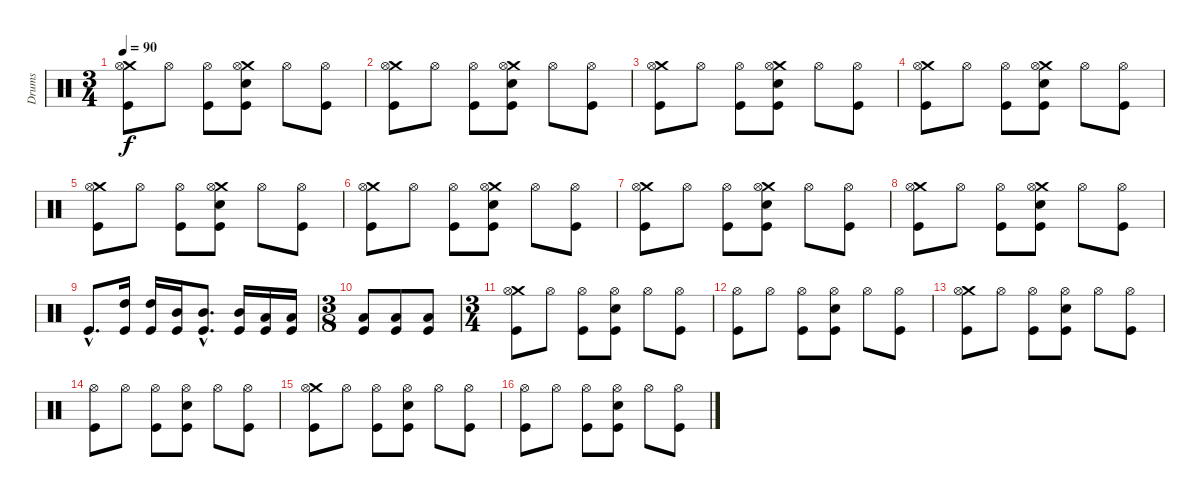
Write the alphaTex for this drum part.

\track ("Drums" "Drums") {instrument percussion}
\staff {score}
\articulation defaults
\ts (3 4)
\tempo 90
\clef neutral
\ks c
("Crash medium (hit)" "Hi-Hat (open)" "Kick (hit)").8{dy f} "Hi-Hat (open)".8 ("Hi-Hat (open)" "Kick (hit)").8 ("Crash medium (hit)" "Hi-Hat (open)" "Snare (hit) 2" "Kick (hit)").8 "Hi-Hat (open)".8 ("Hi-Hat (open)" "Kick (hit)").8 |
("Crash medium (hit)" "Hi-Hat (open)" "Kick (hit)").8 "Hi-Hat (open)".8 ("Hi-Hat (open)" "Kick (hit)").8 ("Crash medium (hit)" "Hi-Hat (open)" "Snare (hit) 2" "Kick (hit)").8 "Hi-Hat (open)".8 ("Hi-Hat (open)" "Kick (hit)").8 |
("Crash medium (hit)" "Hi-Hat (open)" "Kick (hit)").8 "Hi-Hat (open)".8 ("Hi-Hat (open)" "Kick (hit)").8 ("Crash medium (hit)" "Hi-Hat (open)" "Snare (hit) 2" "Kick (hit)").8 "Hi-Hat (open)".8 ("Hi-Hat (open)" "Kick (hit)").8 |
("Crash medium (hit)" "Hi-Hat (open)" "Kick (hit)").8 "Hi-Hat (open)".8 ("Hi-Hat (open)" "Kick (hit)").8 ("Crash medium (hit)" "Hi-Hat (open)" "Snare (hit) 2" "Kick (hit)").8 "Hi-Hat (open)".8 ("Hi-Hat (open)" "Kick (hit)").8 |
("Crash medium (hit)" "Hi-Hat (open)" "Kick (hit)").8 "Hi-Hat (open)".8 ("Hi-Hat (open)" "Kick (hit)").8 ("Crash medium (hit)" "Hi-Hat (open)" "Snare (hit) 2" "Kick (hit)").8 "Hi-Hat (open)".8 ("Hi-Hat (open)" "Kick (hit)").8 |
("Crash medium (hit)" "Hi-Hat (open)" "Kick (hit)").8 "Hi-Hat (open)".8 ("Hi-Hat (open)" "Kick (hit)").8 ("Crash medium (hit)" "Hi-Hat (open)" "Snare (hit) 2" "Kick (hit)").8 "Hi-Hat (open)".8 ("Hi-Hat (open)" "Kick (hit)").8 |
("Crash medium (hit)" "Hi-Hat (open)" "Kick (hit)").8 "Hi-Hat (open)".8 ("Hi-Hat (open)" "Kick (hit)").8 ("Crash medium (hit)" "Hi-Hat (open)" "Snare (hit) 2" "Kick (hit)").8 "Hi-Hat (open)".8 ("Hi-Hat (open)" "Kick (hit)").8 |
("Crash medium (hit)" "Hi-Hat (open)" "Kick (hit)").8 "Hi-Hat (open)".8 ("Hi-Hat (open)" "Kick (hit)").8 ("Crash medium (hit)" "Hi-Hat (open)" "Snare (hit) 2" "Kick (hit)").8 "Hi-Hat (open)".8 ("Hi-Hat (open)" "Kick (hit)").8 |
"Kick (hit)"{hac}.8{d} ("High Tom (hit)" "Kick (hit)").16 ("High Tom (hit)" "Kick (hit)").16 ("Mid Tom (hit)" "Kick (hit)").16 ("Mid Tom (hit)"{hac} "Kick (hit)"{hac}).8{d} ("Mid Tom (hit)" "Kick (hit)").16 ("Low Tom (hit)" "Kick (hit)").16 ("Low Tom (hit)" "Kick (hit)").16 |
\ts (3 8)
("Low Tom (hit)" "Kick (hit)").8 ("Low Tom (hit)" "Kick (hit)").8 ("Low Tom (hit)" "Kick (hit)").8 |
\ts (3 4)
("Crash medium (hit)" "Hi-Hat (open)" "Kick (hit)").8 "Hi-Hat (open)".8 ("Hi-Hat (open)" "Kick (hit)").8 ("Hi-Hat (open)" "Snare (hit) 2" "Kick (hit)").8 "Hi-Hat (open)".8 ("Hi-Hat (open)" "Kick (hit)").8 |
("Hi-Hat (open)" "Kick (hit)").8 "Hi-Hat (open)".8 ("Hi-Hat (open)" "Kick (hit)").8 ("Hi-Hat (open)" "Snare (hit) 2" "Kick (hit)").8 "Hi-Hat (open)".8 ("Hi-Hat (open)" "Kick (hit)").8 |
("Crash medium (hit)" "Hi-Hat (open)" "Kick (hit)").8 "Hi-Hat (open)".8 ("Hi-Hat (open)" "Kick (hit)").8 ("Hi-Hat (open)" "Snare (hit) 2" "Kick (hit)").8 "Hi-Hat (open)".8 ("Hi-Hat (open)" "Kick (hit)").8 |
("Hi-Hat (open)" "Kick (hit)").8 "Hi-Hat (open)".8 ("Hi-Hat (open)" "Kick (hit)").8 ("Hi-Hat (open)" "Snare (hit) 2" "Kick (hit)").8 "Hi-Hat (open)".8 ("Hi-Hat (open)" "Kick (hit)").8 |
("Crash medium (hit)" "Hi-Hat (open)" "Kick (hit)").8 "Hi-Hat (open)".8 ("Hi-Hat (open)" "Kick (hit)").8 ("Hi-Hat (open)" "Snare (hit) 2" "Kick (hit)").8 "Hi-Hat (open)".8 ("Hi-Hat (open)" "Kick (hit)").8 |
("Hi-Hat (open)" "Kick (hit)").8 "Hi-Hat (open)".8 ("Hi-Hat (open)" "Kick (hit)").8 ("Hi-Hat (open)" "Snare (hit) 2" "Kick (hit)").8 "Hi-Hat (open)".8 ("Hi-Hat (open)" "Kick (hit)").8
